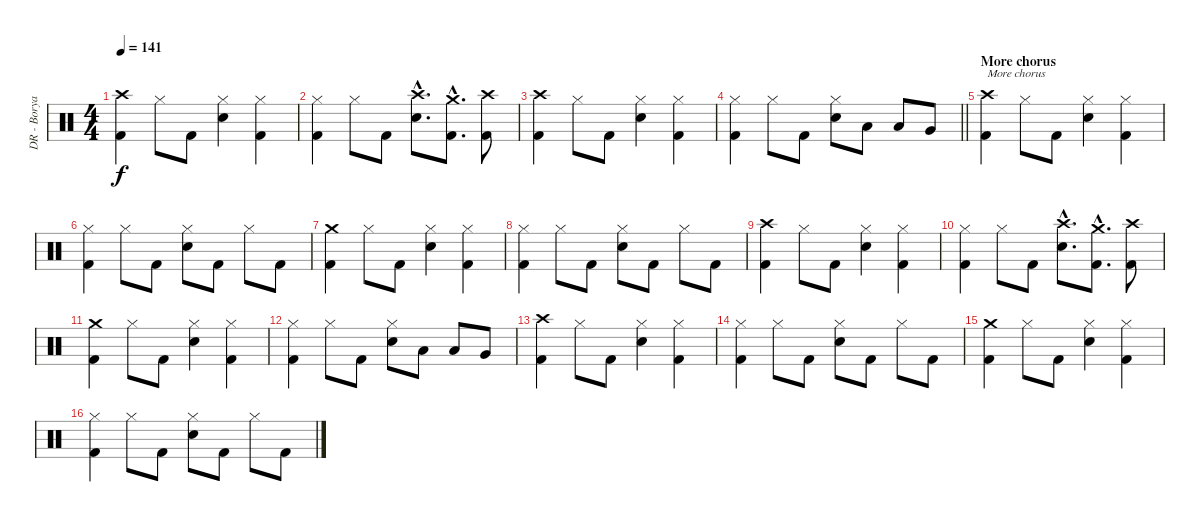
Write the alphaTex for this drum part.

\track ("DR - Borya" "DR - Borya") {instrument percussion}
\staff {score}
\articulation defaults
\ts (4 4)
\tempo 141
\clef neutral
\ks c
("Kick (hit) 2" "Crash high (hit)").4{dy f} "Hi-Hat (closed)".8 "Kick (hit) 2".8 ("Electric Snare (hit)" "Hi-Hat (closed)").4 ("Kick (hit) 2" "Hi-Hat (closed)").4 |
("Kick (hit) 2" "Hi-Hat (closed)").4 "Hi-Hat (closed)".8 "Kick (hit) 2".8 ("Electric Snare (hit)"{hac} "Crash high (hit)"{hac}).8{d} ("Kick (hit) 2"{hac} "Crash medium (hit)"{hac}).8{d} ("Kick (hit) 2" "Crash high (hit)").8 |
("Kick (hit) 2" "Crash high (hit)").4 "Hi-Hat (closed)".8 "Kick (hit) 2".8 ("Electric Snare (hit)" "Hi-Hat (closed)").4 ("Kick (hit) 2" "Hi-Hat (closed)").4 |
\barLineRight lightlight
("Kick (hit) 2" "Hi-Hat (closed)").4 "Hi-Hat (closed)".8 "Kick (hit) 2".8 ("Electric Snare (hit)" "Hi-Hat (closed)").8 "Low Tom (hit)".8 "Low Tom (hit)".8 "Very Low Tom (hit)".8 |
\section ("" "More chorus")
("Kick (hit) 2" "Crash high (hit)").4{txt "More chorus"} "Hi-Hat (closed)".8 "Kick (hit) 2".8 ("Electric Snare (hit)" "Hi-Hat (closed)").4 ("Kick (hit) 2" "Hi-Hat (closed)").4 |
("Kick (hit) 2" "Hi-Hat (closed)").4 "Hi-Hat (closed)".8 "Kick (hit) 2".8 ("Electric Snare (hit)" "Hi-Hat (closed)").8 "Kick (hit) 2".8 "Hi-Hat (closed)".8 "Kick (hit) 2".8 |
("Kick (hit) 2" "Crash medium (hit)").4 "Hi-Hat (closed)".8 "Kick (hit) 2".8 ("Electric Snare (hit)" "Hi-Hat (closed)").4 ("Kick (hit) 2" "Hi-Hat (closed)").4 |
("Kick (hit) 2" "Hi-Hat (closed)").4 "Hi-Hat (closed)".8 "Kick (hit) 2".8 ("Electric Snare (hit)" "Hi-Hat (closed)").8 "Kick (hit) 2".8 "Hi-Hat (closed)".8 "Kick (hit) 2".8 |
("Kick (hit) 2" "Crash high (hit)").4 "Hi-Hat (closed)".8 "Kick (hit) 2".8 ("Electric Snare (hit)" "Hi-Hat (closed)").4 ("Kick (hit) 2" "Hi-Hat (closed)").4 |
("Kick (hit) 2" "Hi-Hat (closed)").4 "Hi-Hat (closed)".8 "Kick (hit) 2".8 ("Electric Snare (hit)"{hac} "Crash high (hit)"{hac}).8{d} ("Kick (hit) 2"{hac} "Crash medium (hit)"{hac}).8{d} ("Kick (hit) 2" "Crash high (hit)").8 |
("Kick (hit) 2" "Crash medium (hit)").4 "Hi-Hat (closed)".8 "Kick (hit) 2".8 ("Electric Snare (hit)" "Hi-Hat (closed)").4 ("Kick (hit) 2" "Hi-Hat (closed)").4 |
("Kick (hit) 2" "Hi-Hat (closed)").4 "Hi-Hat (closed)".8 "Kick (hit) 2".8 ("Electric Snare (hit)" "Hi-Hat (closed)").8 "Low Tom (hit)".8 "Low Tom (hit)".8 "Very Low Tom (hit)".8 |
("Kick (hit) 2" "Crash high (hit)").4 "Hi-Hat (closed)".8 "Kick (hit) 2".8 ("Electric Snare (hit)" "Hi-Hat (closed)").4 ("Kick (hit) 2" "Hi-Hat (closed)").4 |
("Kick (hit) 2" "Hi-Hat (closed)").4 "Hi-Hat (closed)".8 "Kick (hit) 2".8 ("Electric Snare (hit)" "Hi-Hat (closed)").8 "Kick (hit) 2".8 "Hi-Hat (closed)".8 "Kick (hit) 2".8 |
("Kick (hit) 2" "Crash medium (hit)").4 "Hi-Hat (closed)".8 "Kick (hit) 2".8 ("Electric Snare (hit)" "Hi-Hat (closed)").4 ("Kick (hit) 2" "Hi-Hat (closed)").4 |
("Kick (hit) 2" "Hi-Hat (closed)").4 "Hi-Hat (closed)".8 "Kick (hit) 2".8 ("Electric Snare (hit)" "Hi-Hat (closed)").8 "Kick (hit) 2".8 "Hi-Hat (closed)".8 "Kick (hit) 2".8
